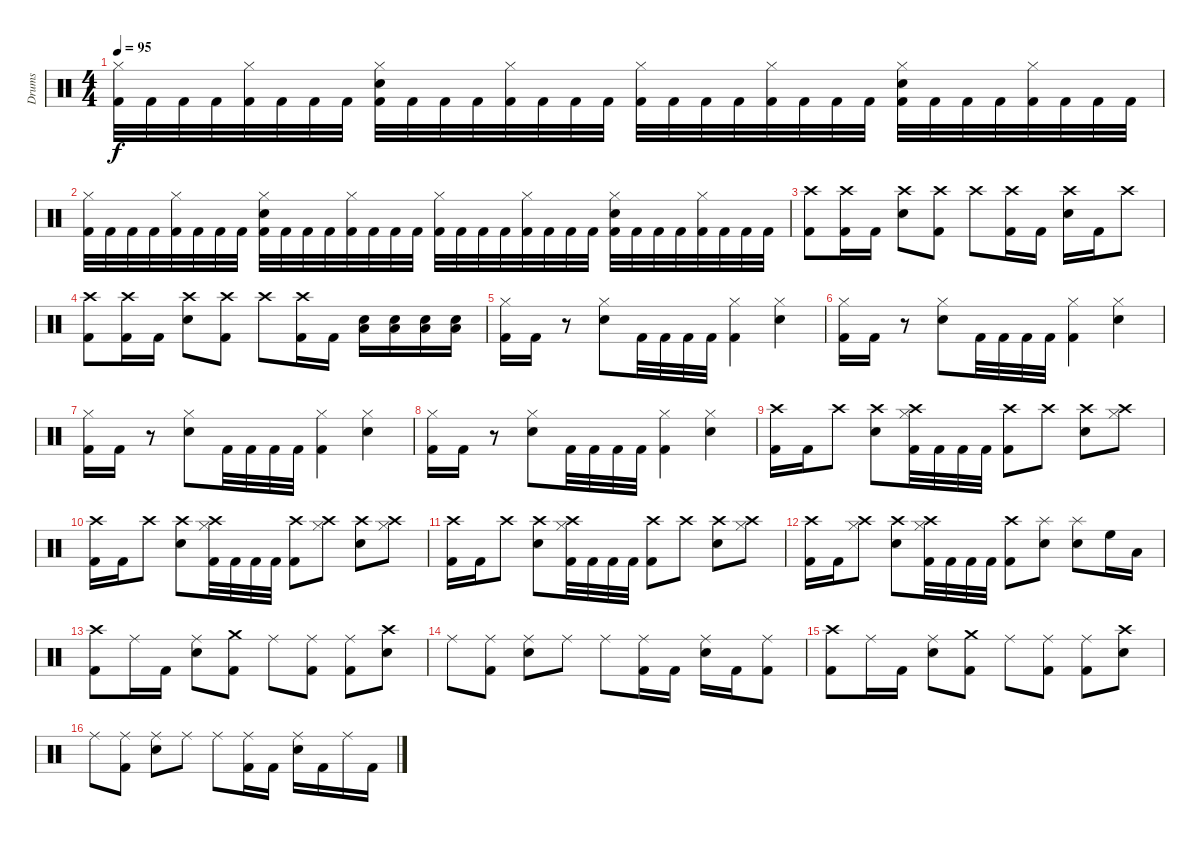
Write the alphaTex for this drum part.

\track ("Drums" "Drums") {instrument percussion}
\staff {score}
\articulation defaults
\ts (4 4)
\tempo 95
\clef neutral
\ks c
("Hi-Hat (closed)" "Kick (hit) 2").32{dy f} "Kick (hit) 2".32 "Kick (hit) 2".32 "Kick (hit) 2".32 ("Hi-Hat (closed)" "Kick (hit) 2").32 "Kick (hit) 2".32 "Kick (hit) 2".32 "Kick (hit) 2".32 ("Hi-Hat (closed)" "Electric Snare (hit)" "Kick (hit) 2").32 "Kick (hit) 2".32 "Kick (hit) 2".32 "Kick (hit) 2".32 ("Hi-Hat (closed)" "Kick (hit) 2").32 "Kick (hit) 2".32 "Kick (hit) 2".32 "Kick (hit) 2".32 ("Hi-Hat (closed)" "Kick (hit) 2").32 "Kick (hit) 2".32 "Kick (hit) 2".32 "Kick (hit) 2".32 ("Hi-Hat (closed)" "Kick (hit) 2").32 "Kick (hit) 2".32 "Kick (hit) 2".32 "Kick (hit) 2".32 ("Hi-Hat (closed)" "Electric Snare (hit)" "Kick (hit) 2").32 "Kick (hit) 2".32 "Kick (hit) 2".32 "Kick (hit) 2".32 ("Hi-Hat (closed)" "Kick (hit) 2").32 "Kick (hit) 2".32 "Kick (hit) 2".32 "Kick (hit) 2".32 |
("Hi-Hat (closed)" "Kick (hit) 2").32 "Kick (hit) 2".32 "Kick (hit) 2".32 "Kick (hit) 2".32 ("Hi-Hat (closed)" "Kick (hit) 2").32 "Kick (hit) 2".32 "Kick (hit) 2".32 "Kick (hit) 2".32 ("Hi-Hat (closed)" "Electric Snare (hit)" "Kick (hit) 2").32 "Kick (hit) 2".32 "Kick (hit) 2".32 "Kick (hit) 2".32 ("Hi-Hat (closed)" "Kick (hit) 2").32 "Kick (hit) 2".32 "Kick (hit) 2".32 "Kick (hit) 2".32 ("Hi-Hat (closed)" "Kick (hit) 2").32 "Kick (hit) 2".32 "Kick (hit) 2".32 "Kick (hit) 2".32 ("Hi-Hat (closed)" "Kick (hit) 2").32 "Kick (hit) 2".32 "Kick (hit) 2".32 "Kick (hit) 2".32 ("Hi-Hat (closed)" "Electric Snare (hit)" "Kick (hit) 2").32 "Kick (hit) 2".32 "Kick (hit) 2".32 "Kick (hit) 2".32 ("Hi-Hat (closed)" "Kick (hit) 2").32 "Kick (hit) 2".32 "Kick (hit) 2".32 "Kick (hit) 2".32 |
("Crash high (hit)" "Kick (hit) 2").8 ("Crash high (hit)" "Kick (hit) 2").16 "Kick (hit) 2".16 ("Crash high (hit)" "Electric Snare (hit)").8 ("Crash high (hit)" "Kick (hit) 2").8 "Crash high (hit)".8 ("Crash high (hit)" "Kick (hit) 2").16 "Kick (hit) 2".16 ("Crash high (hit)" "Electric Snare (hit)").16 "Kick (hit) 2".16 "Crash high (hit)".8 |
("Crash high (hit)" "Kick (hit) 2").8 ("Crash high (hit)" "Kick (hit) 2").16 "Kick (hit) 2".16 ("Crash high (hit)" "Electric Snare (hit)").8 ("Crash high (hit)" "Kick (hit) 2").8 "Crash high (hit)".8 ("Crash high (hit)" "Kick (hit) 2").16 "Kick (hit) 2".16 ("Low Floor Tom (hit)" "Electric Snare (hit)").16 ("Low Floor Tom (hit)" "Electric Snare (hit)").16 ("Low Floor Tom (hit)" "Electric Snare (hit)").16 ("Low Floor Tom (hit)" "Electric Snare (hit)").16 |
("Hi-Hat (closed)" "Kick (hit) 2").16 "Kick (hit) 2".16 r.8 ("Hi-Hat (closed)" "Electric Snare (hit)").8 "Kick (hit) 2".32 "Kick (hit) 2".32 "Kick (hit) 2".32 "Kick (hit) 2".32 ("Hi-Hat (closed)" "Kick (hit) 2").4 ("Hi-Hat (closed)" "Electric Snare (hit)").4 |
("Hi-Hat (closed)" "Kick (hit) 2").16 "Kick (hit) 2".16 r.8 ("Hi-Hat (closed)" "Electric Snare (hit)").8 "Kick (hit) 2".32 "Kick (hit) 2".32 "Kick (hit) 2".32 "Kick (hit) 2".32 ("Hi-Hat (closed)" "Kick (hit) 2").4 ("Hi-Hat (closed)" "Electric Snare (hit)").4 |
("Hi-Hat (closed)" "Kick (hit) 2").16 "Kick (hit) 2".16 r.8 ("Hi-Hat (closed)" "Electric Snare (hit)").8 "Kick (hit) 2".32 "Kick (hit) 2".32 "Kick (hit) 2".32 "Kick (hit) 2".32 ("Hi-Hat (closed)" "Kick (hit) 2").4 ("Hi-Hat (closed)" "Electric Snare (hit)").4 |
("Hi-Hat (closed)" "Kick (hit) 2").16 "Kick (hit) 2".16 r.8 ("Hi-Hat (closed)" "Electric Snare (hit)").8 "Kick (hit) 2".32 "Kick (hit) 2".32 "Kick (hit) 2".32 "Kick (hit) 2".32 ("Hi-Hat (closed)" "Kick (hit) 2").4 ("Hi-Hat (closed)" "Electric Snare (hit)").4 |
("Crash high (hit)" "Kick (hit) 2").16 "Kick (hit) 2".16 "Crash high (hit)".8 ("Crash high (hit)" "Electric Snare (hit)").8 ("Crash high (hit)" "Hi-Hat (closed)" "Kick (hit) 2").32 "Kick (hit) 2".32 "Kick (hit) 2".32 "Kick (hit) 2".32 ("Crash high (hit)" "Kick (hit) 2").8 "Crash high (hit)".8 ("Crash high (hit)" "Electric Snare (hit)").8 ("Crash high (hit)" "Hi-Hat (closed)").8 |
("Crash high (hit)" "Kick (hit) 2").16 "Kick (hit) 2".16 "Crash high (hit)".8 ("Crash high (hit)" "Electric Snare (hit)").8 ("Crash high (hit)" "Hi-Hat (closed)" "Kick (hit) 2").32 "Kick (hit) 2".32 "Kick (hit) 2".32 "Kick (hit) 2".32 ("Crash high (hit)" "Kick (hit) 2").8 ("Crash high (hit)" "Hi-Hat (closed)").8 ("Crash high (hit)" "Electric Snare (hit)").8 ("Crash high (hit)" "Hi-Hat (closed)").8 |
("Crash high (hit)" "Kick (hit) 2").16 "Kick (hit) 2".16 "Crash high (hit)".8 ("Crash high (hit)" "Electric Snare (hit)").8 ("Crash high (hit)" "Hi-Hat (closed)" "Kick (hit) 2").32 "Kick (hit) 2".32 "Kick (hit) 2".32 "Kick (hit) 2".32 ("Crash high (hit)" "Kick (hit) 2").8 "Crash high (hit)".8 ("Crash high (hit)" "Electric Snare (hit)").8 ("Crash high (hit)" "Hi-Hat (closed)").8 |
("Crash high (hit)" "Kick (hit) 2").16 "Kick (hit) 2".16 ("Crash high (hit)" "Hi-Hat (closed)").8 ("Crash high (hit)" "Electric Snare (hit)").8 ("Crash high (hit)" "Hi-Hat (closed)" "Kick (hit) 2").32 "Kick (hit) 2".32 "Kick (hit) 2".32 "Kick (hit) 2".32 ("Crash high (hit)" "Kick (hit) 2").8 ("Splash (hit)" "Electric Snare (hit)").8 ("Splash (hit)" "Electric Snare (hit)").8 "High Floor Tom (hit)".16 "Low Tom (hit)".16 |
("Crash high (hit)" "Kick (hit) 2").8 "Ride (middle)".16 "Kick (hit) 2".16 ("Ride (middle)" "Electric Snare (hit)").8 ("Crash medium (hit)" "Kick (hit) 2").8 "Ride (middle)".8 ("Ride (middle)" "Kick (hit) 2").8 ("Ride (middle)" "Kick (hit) 2").8 ("Crash high (hit)" "Electric Snare (hit)").8 |
"Ride (middle)".8 ("Ride (middle)" "Kick (hit) 2").8 ("Ride (middle)" "Electric Snare (hit)").8 "Ride (middle)".8 "Ride (middle)".8 ("Ride (middle)" "Kick (hit) 2").16 "Kick (hit) 2".16 ("Ride (middle)" "Electric Snare (hit)").16 "Kick (hit) 2".16 ("Ride (middle)" "Kick (hit) 2").8 |
("Crash high (hit)" "Kick (hit) 2").8 "Ride (middle)".16 "Kick (hit) 2".16 ("Ride (middle)" "Electric Snare (hit)").8 ("Crash medium (hit)" "Kick (hit) 2").8 "Ride (middle)".8 ("Ride (middle)" "Kick (hit) 2").8 ("Ride (middle)" "Kick (hit) 2").8 ("Crash high (hit)" "Electric Snare (hit)").8 |
"Ride (middle)".8 ("Ride (middle)" "Kick (hit) 2").8 ("Ride (middle)" "Electric Snare (hit)").8 "Ride (middle)".8 "Ride (middle)".8 ("Ride (middle)" "Kick (hit) 2").16 "Kick (hit) 2".16 ("Ride (middle)" "Electric Snare (hit)").16 "Kick (hit) 2".16 "Ride (middle)".16 "Kick (hit) 2".16
